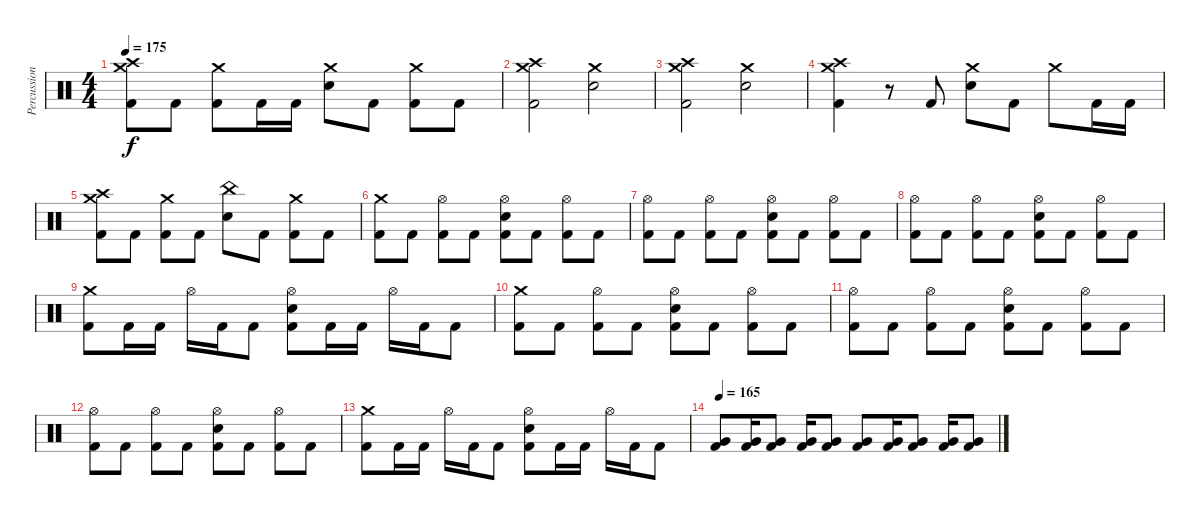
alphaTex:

\track ("Percussion" "Percussion") {instrument percussion}
\staff {score}
\articulation defaults
\ts (4 4)
\tempo 175
\clef neutral
\ks c
("Kick (hit) 2" "Crash medium (hit)" "Crash high (hit)").8{dy f} "Kick (hit) 2".8 ("Kick (hit) 2" "Crash medium (hit)").8 "Kick (hit) 2".16 "Kick (hit) 2".16 ("Electric Snare (hit)" "Crash medium (hit)").8 "Kick (hit) 2".8 ("Kick (hit) 2" "Crash medium (hit)").8 "Kick (hit) 2".8 |
("Kick (hit) 2" "Crash medium (hit)" "Crash high (hit)").2 ("Electric Snare (hit)" "Crash medium (hit)").2 |
("Kick (hit) 2" "Crash medium (hit)" "Crash high (hit)").2 ("Electric Snare (hit)" "Crash medium (hit)").2 |
("Kick (hit) 2" "Crash medium (hit)" "Crash high (hit)").4 r.8 "Kick (hit) 2".8 ("Electric Snare (hit)" "Crash medium (hit)").8 "Kick (hit) 2".8 "Crash medium (hit)".8 "Kick (hit) 2".16 "Kick (hit) 2".16 |
("Kick (hit) 2" "Crash medium (hit)" "Crash high (hit)").8 "Kick (hit) 2".8 ("Kick (hit) 2" "Crash medium (hit)").8 "Kick (hit) 2".8 ("Electric Snare (hit)" "China (hit)").8 "Kick (hit) 2".8 ("Kick (hit) 2" "Crash medium (hit)").8 "Kick (hit) 2".8 |
("Kick (hit) 2" "Crash medium (hit)").8 "Kick (hit) 2".8 ("Kick (hit) 2" "Hi-Hat (open)").8 "Kick (hit) 2".8 ("Kick (hit) 2" "Electric Snare (hit)" "Hi-Hat (open)").8 "Kick (hit) 2".8 ("Kick (hit) 2" "Hi-Hat (open)").8 "Kick (hit) 2".8 |
("Kick (hit) 2" "Hi-Hat (open)").8 "Kick (hit) 2".8 ("Kick (hit) 2" "Hi-Hat (open)").8 "Kick (hit) 2".8 ("Kick (hit) 2" "Electric Snare (hit)" "Hi-Hat (open)").8 "Kick (hit) 2".8 ("Kick (hit) 2" "Hi-Hat (open)").8 "Kick (hit) 2".8 |
("Kick (hit) 2" "Hi-Hat (open)").8 "Kick (hit) 2".8 ("Kick (hit) 2" "Hi-Hat (open)").8 "Kick (hit) 2".8 ("Kick (hit) 2" "Electric Snare (hit)" "Hi-Hat (open)").8 "Kick (hit) 2".8 ("Kick (hit) 2" "Hi-Hat (open)").8 "Kick (hit) 2".8 |
("Kick (hit) 2" "Crash medium (hit)").8 "Kick (hit) 2".16 "Kick (hit) 2".16 "Hi-Hat (open)".16 "Kick (hit) 2".16 "Kick (hit) 2".8 ("Kick (hit) 2" "Electric Snare (hit)" "Hi-Hat (open)").8 "Kick (hit) 2".16 "Kick (hit) 2".16 "Hi-Hat (open)".16 "Kick (hit) 2".16 "Kick (hit) 2".8 |
("Kick (hit) 2" "Crash medium (hit)").8 "Kick (hit) 2".8 ("Kick (hit) 2" "Hi-Hat (open)").8 "Kick (hit) 2".8 ("Kick (hit) 2" "Electric Snare (hit)" "Hi-Hat (open)").8 "Kick (hit) 2".8 ("Kick (hit) 2" "Hi-Hat (open)").8 "Kick (hit) 2".8 |
("Kick (hit) 2" "Hi-Hat (open)").8 "Kick (hit) 2".8 ("Kick (hit) 2" "Hi-Hat (open)").8 "Kick (hit) 2".8 ("Kick (hit) 2" "Electric Snare (hit)" "Hi-Hat (open)").8 "Kick (hit) 2".8 ("Kick (hit) 2" "Hi-Hat (open)").8 "Kick (hit) 2".8 |
("Kick (hit) 2" "Hi-Hat (open)").8 "Kick (hit) 2".8 ("Kick (hit) 2" "Hi-Hat (open)").8 "Kick (hit) 2".8 ("Kick (hit) 2" "Electric Snare (hit)" "Hi-Hat (open)").8 "Kick (hit) 2".8 ("Kick (hit) 2" "Hi-Hat (open)").8 "Kick (hit) 2".8 |
("Kick (hit) 2" "Crash medium (hit)").8 "Kick (hit) 2".16 "Kick (hit) 2".16 "Hi-Hat (open)".16 "Kick (hit) 2".16 "Kick (hit) 2".8 ("Kick (hit) 2" "Electric Snare (hit)" "Hi-Hat (open)").8 "Kick (hit) 2".16 "Kick (hit) 2".16 "Hi-Hat (open)".16 "Kick (hit) 2".16 "Kick (hit) 2".8 |
\tempo 165
("Kick (hit) 2" "Very Low Tom (hit)").8 ("Kick (hit) 2" "Very Low Tom (hit)").16 ("Kick (hit) 2" "Very Low Tom (hit)").8 ("Kick (hit) 2" "Very Low Tom (hit)").16 ("Kick (hit) 2" "Very Low Tom (hit)").8 ("Kick (hit) 2" "Very Low Tom (hit)").8 ("Kick (hit) 2" "Very Low Tom (hit)").16 ("Kick (hit) 2" "Very Low Tom (hit)").8 ("Kick (hit) 2" "Very Low Tom (hit)").16 ("Kick (hit) 2" "Very Low Tom (hit)").8
